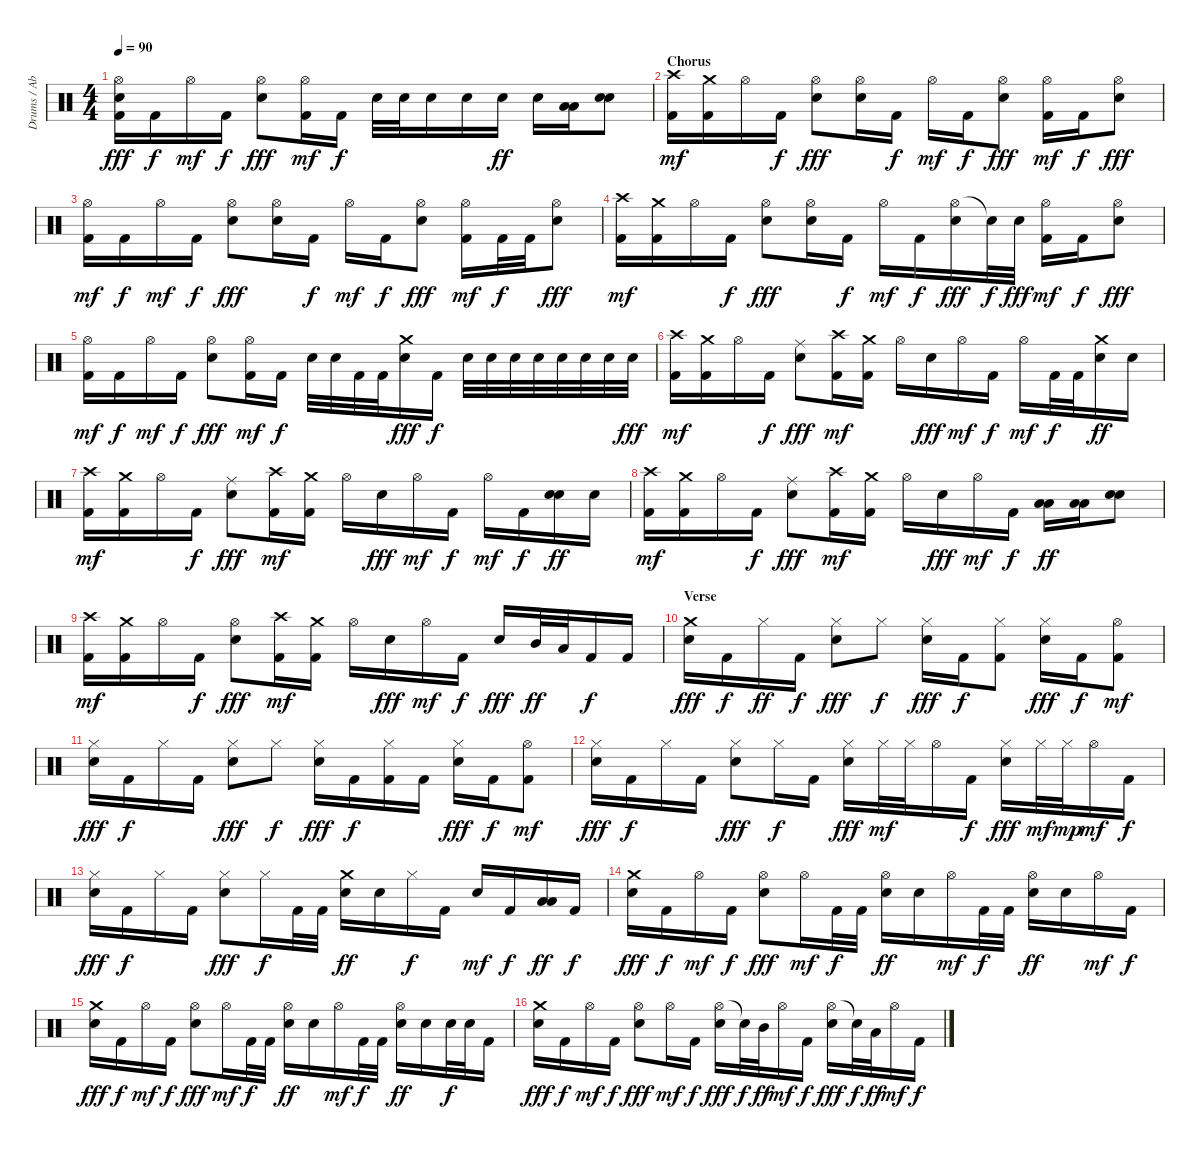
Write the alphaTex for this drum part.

\track ("Drums / Abe Cunningham" "Drums / Ab") {instrument percussion}
\staff {score}
\articulation defaults
\ts (4 4)
\tempo 90
\clef neutral
\ks c
("Hi-Hat (open)" "Electric Snare (hit)" "Kick (hit) 2").16{dy fff} "Kick (hit) 2".16{dy f} "Hi-Hat (open)".16{dy mf} "Kick (hit) 2".16{dy f} ("Hi-Hat (open)" "Electric Snare (hit)").8{dy fff} ("Hi-Hat (open)" "Kick (hit) 2").16{dy mf} "Kick (hit) 2".16{dy f} "Electric Snare (hit)".32 "Electric Snare (hit)".32 "Electric Snare (hit)".16 "Electric Snare (hit)".16 "Electric Snare (hit)".16{dy ff} "Electric Snare (hit)".16 ("Low Tom (hit)" "Low Floor Tom (hit)").16{bd 30} ("Electric Snare (hit)" "Electric Snare (hit)").8{bd 60} |
\section ("" "Chorus")
("Crash high (hit)" "Kick (hit) 2").16{dy mf} ("Crash medium (hit)" "Kick (hit) 2").16 "Hi-Hat (open)".16 "Kick (hit) 2".16{dy f} ("Hi-Hat (open)" "Electric Snare (hit)").8{dy fff} ("Hi-Hat (open)" "Electric Snare (hit)").16 "Kick (hit) 2".16{dy f} "Hi-Hat (open)".16{dy mf} "Kick (hit) 2".16{dy f} ("Hi-Hat (open)" "Electric Snare (hit)").8{dy fff} ("Hi-Hat (open)" "Kick (hit) 2").16{dy mf} "Kick (hit) 2".16{dy f} ("Hi-Hat (open)" "Electric Snare (hit)").8{dy fff} |
("Hi-Hat (open)" "Kick (hit) 2").16{dy mf} "Kick (hit) 2".16{dy f} "Hi-Hat (open)".16{dy mf} "Kick (hit) 2".16{dy f} ("Hi-Hat (open)" "Electric Snare (hit)").8{dy fff} ("Hi-Hat (open)" "Electric Snare (hit)").16 "Kick (hit) 2".16{dy f} "Hi-Hat (open)".16{dy mf} "Kick (hit) 2".16{dy f} ("Hi-Hat (open)" "Electric Snare (hit)").8{dy fff} ("Hi-Hat (open)" "Kick (hit) 2").16{dy mf} "Kick (hit) 2".32{dy f} "Kick (hit) 2".32 ("Hi-Hat (open)" "Electric Snare (hit)").8{dy fff} |
("Crash high (hit)" "Kick (hit) 2").16{dy mf} ("Crash medium (hit)" "Kick (hit) 2").16 "Hi-Hat (open)".16 "Kick (hit) 2".16{dy f} ("Hi-Hat (open)" "Electric Snare (hit)").8{dy fff} ("Hi-Hat (open)" "Electric Snare (hit)").16 "Kick (hit) 2".16{dy f} "Hi-Hat (open)".16{dy mf} "Kick (hit) 2".16{dy f} ("Hi-Hat (open)" "Electric Snare (hit)").16{dy fff} "Snare (hit)"{t}.32{dy f} "Electric Snare (hit)".32{dy fff} ("Hi-Hat (open)" "Kick (hit) 2").16{dy mf} "Kick (hit) 2".16{dy f} ("Hi-Hat (open)" "Electric Snare (hit)").8{dy fff} |
("Hi-Hat (open)" "Kick (hit) 2").16{dy mf} "Kick (hit) 2".16{dy f} "Hi-Hat (open)".16{dy mf} "Kick (hit) 2".16{dy f} ("Hi-Hat (open)" "Electric Snare (hit)").8{dy fff} ("Hi-Hat (open)" "Kick (hit) 2").16{dy mf} "Kick (hit) 2".16{dy f} "Electric Snare (hit)".32 "Electric Snare (hit)".32 "Kick (hit) 2".32 "Kick (hit) 2".32 ("Crash medium (hit)" "Electric Snare (hit)").16{dy fff} "Kick (hit) 2".16{dy f} "Electric Snare (hit)".32 "Electric Snare (hit)".32 "Electric Snare (hit)".32 "Electric Snare (hit)".32 "Electric Snare (hit)".32 "Electric Snare (hit)".32 "Electric Snare (hit)".32 "Electric Snare (hit)".32{dy fff} |
("Crash high (hit)" "Kick (hit) 2").16{dy mf} ("Crash medium (hit)" "Kick (hit) 2").16 "Hi-Hat (open)".16 "Kick (hit) 2".16{dy f} ("Ride (middle)" "Electric Snare (hit)").8{dy fff} ("Crash high (hit)" "Kick (hit) 2").16{dy mf} ("Crash medium (hit)" "Kick (hit) 2").16 "Hi-Hat (open)".16 "Electric Snare (hit)".16{dy fff} "Hi-Hat (open)".16{dy mf} "Kick (hit) 2".16{dy f} "Hi-Hat (open)".16{dy mf} "Kick (hit) 2".32{dy f} "Kick (hit) 2".32 ("Crash medium (hit)" "Electric Snare (hit)").16{dy ff} "Electric Snare (hit)".16 |
("Crash high (hit)" "Kick (hit) 2").16{dy mf} ("Crash medium (hit)" "Kick (hit) 2").16 "Hi-Hat (open)".16 "Kick (hit) 2".16{dy f} ("Ride (middle)" "Electric Snare (hit)").8{dy fff} ("Crash high (hit)" "Kick (hit) 2").16{dy mf} ("Crash medium (hit)" "Kick (hit) 2").16 "Hi-Hat (open)".16 "Electric Snare (hit)".16{dy fff} "Hi-Hat (open)".16{dy mf} "Kick (hit) 2".16{dy f} "Hi-Hat (open)".16{dy mf} "Kick (hit) 2".16{dy f} ("Electric Snare (hit)" "Electric Snare (hit)").16{bd 60 dy ff} "Electric Snare (hit)".16 |
("Crash high (hit)" "Kick (hit) 2").16{dy mf} ("Crash medium (hit)" "Kick (hit) 2").16 "Hi-Hat (open)".16 "Kick (hit) 2".16{dy f} ("Ride (middle)" "Electric Snare (hit)").8{dy fff} ("Crash high (hit)" "Kick (hit) 2").16{dy mf} ("Crash medium (hit)" "Kick (hit) 2").16 "Hi-Hat (open)".16 "Electric Snare (hit)".16{dy fff} "Hi-Hat (open)".16{dy mf} "Kick (hit) 2".16{dy f} ("Low Tom (hit)" "Low Floor Tom (hit)").16{bd 30 dy ff} ("Low Tom (hit)" "Low Floor Tom (hit)").16{bd 30} ("Electric Snare (hit)" "Electric Snare (hit)").8{bd 60} |
("Crash high (hit)" "Kick (hit) 2").16{dy mf} ("Crash medium (hit)" "Kick (hit) 2").16 "Hi-Hat (open)".16 "Kick (hit) 2".16{dy f} ("Hi-Hat (open)" "Electric Snare (hit)").8{dy fff} ("Crash high (hit)" "Kick (hit) 2").16{dy mf} ("Crash medium (hit)" "Kick (hit) 2").16 "Hi-Hat (open)".16 "Electric Snare (hit)".16{dy fff} "Hi-Hat (open)".16{dy mf} "Kick (hit) 2".16{dy f} "Electric Snare (hit)".16{dy fff} "Mid Tom (hit)".32{dy ff} "Low Floor Tom (hit)".32 "Kick (hit) 2".16{dy f} "Kick (hit) 2".16 |
\section ("" "Verse")
("Crash medium (hit)" "Electric Snare (hit)").16{dy fff} "Kick (hit) 2".16{dy f} "Hi-Hat (closed)".16{dy ff} "Kick (hit) 2".16{dy f} ("Hi-Hat (closed)" "Electric Snare (hit)").8{dy fff} "Hi-Hat (closed)".8{dy f} ("Hi-Hat (closed)" "Electric Snare (hit)").16{dy fff} "Kick (hit) 2".16{dy f} ("Hi-Hat (closed)" "Kick (hit) 2").8 ("Hi-Hat (closed)" "Electric Snare (hit)").16{dy fff} "Kick (hit) 2".16{dy f} ("Hi-Hat (open)" "Kick (hit) 2").8{dy mf} |
("Hi-Hat (closed)" "Electric Snare (hit)").16{dy fff} "Kick (hit) 2".16{dy f} "Hi-Hat (closed)".16 "Kick (hit) 2".16 ("Hi-Hat (closed)" "Electric Snare (hit)").8{dy fff} "Hi-Hat (closed)".8{dy f} ("Hi-Hat (closed)" "Electric Snare (hit)").16{dy fff} "Kick (hit) 2".16{dy f} ("Hi-Hat (closed)" "Kick (hit) 2").16 "Kick (hit) 2".16 ("Hi-Hat (closed)" "Electric Snare (hit)").16{dy fff} "Kick (hit) 2".16{dy f} ("Hi-Hat (open)" "Kick (hit) 2").8{dy mf} |
("Hi-Hat (closed)" "Electric Snare (hit)").16{dy fff} "Kick (hit) 2".16{dy f} "Hi-Hat (closed)".16 "Kick (hit) 2".16 ("Hi-Hat (closed)" "Electric Snare (hit)").8{dy fff} "Hi-Hat (closed)".16{dy f} "Kick (hit) 2".16 ("Hi-Hat (closed)" "Electric Snare (hit)").16{dy fff} "Hi-Hat (closed)".32{dy mf} "Hi-Hat (closed)".32 "Hi-Hat (open)".16 "Kick (hit) 2".16{dy f} ("Hi-Hat (closed)" "Electric Snare (hit)").16{dy fff} "Hi-Hat (closed)".32{dy mf} "Hi-Hat (closed)".32{dy mp} "Hi-Hat (open)".16{dy mf} "Kick (hit) 2".16{dy f} |
("Hi-Hat (closed)" "Electric Snare (hit)").16{dy fff} "Kick (hit) 2".16{dy f} "Hi-Hat (closed)".16 "Kick (hit) 2".16 ("Hi-Hat (closed)" "Electric Snare (hit)").8{dy fff} "Hi-Hat (closed)".16{dy f} "Kick (hit) 2".32 "Kick (hit) 2".32 ("Crash medium (hit)" "Electric Snare (hit)").16{dy ff} "Electric Snare (hit)".16 "Hi-Hat (closed)".16{dy f} "Kick (hit) 2".16 "Electric Snare (hit)".16{dy mf} "Kick (hit) 2".16{dy f} ("Low Tom (hit)" "Low Floor Tom (hit)").16{bd 30 dy ff} "Kick (hit) 2".16{dy f} |
("Crash medium (hit)" "Electric Snare (hit)").16{dy fff} "Kick (hit) 2".16{dy f} "Hi-Hat (open)".16{dy mf} "Kick (hit) 2".16{dy f} ("Hi-Hat (open)" "Electric Snare (hit)").8{dy fff} "Hi-Hat (open)".16{dy mf} "Kick (hit) 2".32{dy f} "Kick (hit) 2".32 ("Hi-Hat (open)" "Electric Snare (hit)").16{dy ff} "Electric Snare (hit)".16 "Hi-Hat (open)".16{dy mf} "Kick (hit) 2".32{dy f} "Kick (hit) 2".32 ("Hi-Hat (open)" "Electric Snare (hit)").16{dy ff} "Electric Snare (hit)".16 "Hi-Hat (open)".16{dy mf} "Kick (hit) 2".16{dy f} |
("Crash medium (hit)" "Electric Snare (hit)").16{dy fff} "Kick (hit) 2".16{dy f} "Hi-Hat (open)".16{dy mf} "Kick (hit) 2".16{dy f} ("Hi-Hat (open)" "Electric Snare (hit)").8{dy fff} "Hi-Hat (open)".16{dy mf} "Kick (hit) 2".32{dy f} "Kick (hit) 2".32 ("Hi-Hat (open)" "Electric Snare (hit)").16{dy ff} "Electric Snare (hit)".16 "Hi-Hat (open)".16{dy mf} "Kick (hit) 2".32{dy f} "Kick (hit) 2".32 ("Hi-Hat (open)" "Electric Snare (hit)").16{dy ff} "Electric Snare (hit)".16 "Electric Snare (hit)".32{dy f} "Electric Snare (hit)".32 "Kick (hit) 2".16 |
("Crash medium (hit)" "Electric Snare (hit)").16{dy fff} "Kick (hit) 2".16{dy f} "Hi-Hat (open)".16{dy mf} "Kick (hit) 2".16{dy f} ("Hi-Hat (open)" "Electric Snare (hit)").8{dy fff} "Hi-Hat (open)".16{dy mf} "Kick (hit) 2".16{dy f} ("Hi-Hat (open)" "Electric Snare (hit)").16{dy fff} "Snare (hit)"{t}.32{dy f} "Mid Tom (hit)".32{dy ff} "Hi-Hat (open)".16{dy mf} "Kick (hit) 2".16{dy f} ("Hi-Hat (open)" "Electric Snare (hit)").16{dy fff} "Electric Snare (hit)"{t}.32{dy f} "Low Floor Tom (hit)".32{dy ff} "Hi-Hat (open)".16{dy mf} "Kick (hit) 2".16{dy f}
